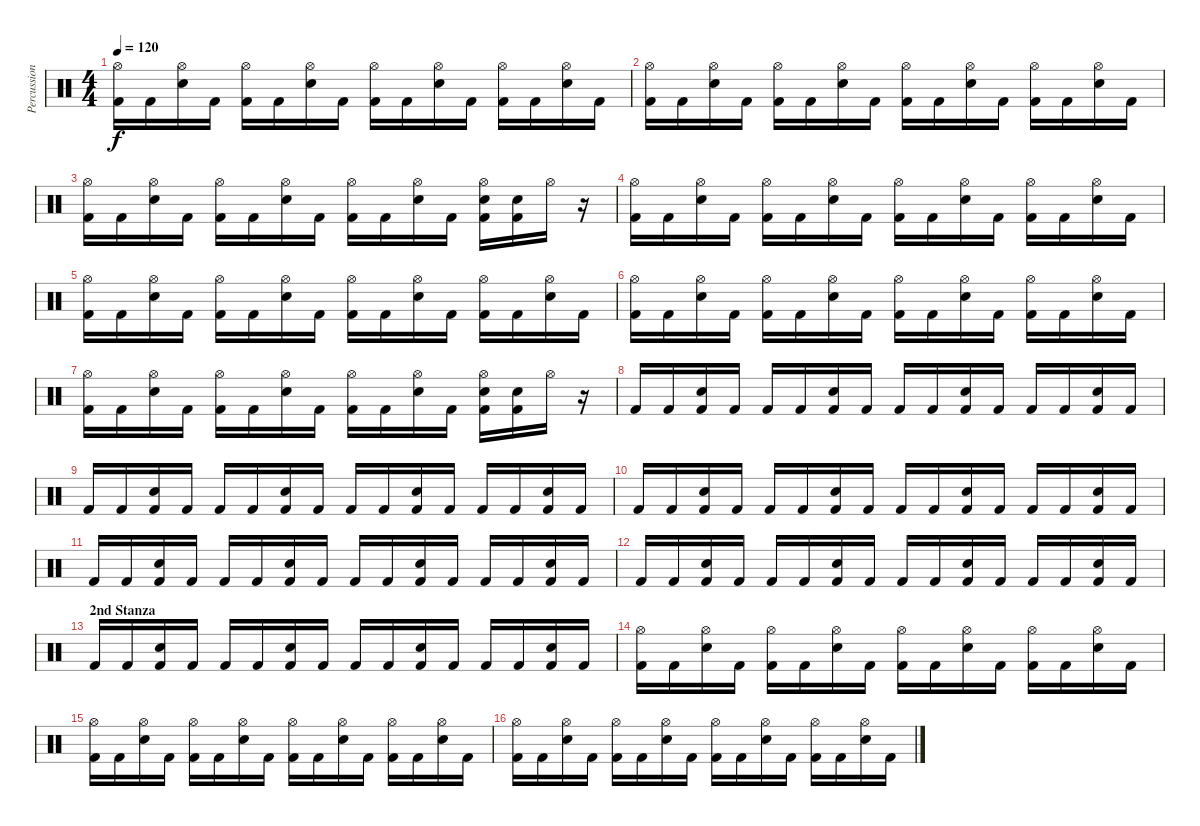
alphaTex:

\track ("Percussion" "Percussion") {instrument percussion}
\staff {score}
\articulation defaults
\ts (4 4)
\tempo 120
\clef neutral
\ks c
("Hi-Hat (open)" "Kick (hit) 2").16{dy f} "Kick (hit) 2".16 ("Hi-Hat (open)" "Snare (hit) 2").16 "Kick (hit) 2".16 ("Hi-Hat (open)" "Kick (hit) 2").16 "Kick (hit) 2".16 ("Hi-Hat (open)" "Snare (hit) 2").16 "Kick (hit) 2".16 ("Hi-Hat (open)" "Kick (hit) 2").16 "Kick (hit) 2".16 ("Hi-Hat (open)" "Snare (hit) 2").16 "Kick (hit) 2".16 ("Hi-Hat (open)" "Kick (hit) 2").16 "Kick (hit) 2".16 ("Hi-Hat (open)" "Snare (hit) 2").16 "Kick (hit) 2".16 |
("Hi-Hat (open)" "Kick (hit) 2").16 "Kick (hit) 2".16 ("Hi-Hat (open)" "Snare (hit) 2").16 "Kick (hit) 2".16 ("Hi-Hat (open)" "Kick (hit) 2").16 "Kick (hit) 2".16 ("Hi-Hat (open)" "Snare (hit) 2").16 "Kick (hit) 2".16 ("Hi-Hat (open)" "Kick (hit) 2").16 "Kick (hit) 2".16 ("Hi-Hat (open)" "Snare (hit) 2").16 "Kick (hit) 2".16 ("Hi-Hat (open)" "Kick (hit) 2").16 "Kick (hit) 2".16 ("Hi-Hat (open)" "Snare (hit) 2").16 "Kick (hit) 2".16 |
("Hi-Hat (open)" "Kick (hit) 2").16 "Kick (hit) 2".16 ("Hi-Hat (open)" "Snare (hit) 2").16 "Kick (hit) 2".16 ("Hi-Hat (open)" "Kick (hit) 2").16 "Kick (hit) 2".16 ("Hi-Hat (open)" "Snare (hit) 2").16 "Kick (hit) 2".16 ("Hi-Hat (open)" "Kick (hit) 2").16 "Kick (hit) 2".16 ("Hi-Hat (open)" "Snare (hit) 2").16 "Kick (hit) 2".16 ("Hi-Hat (open)" "Snare (hit) 2" "Kick (hit) 2").16 ("Snare (hit) 2" "Kick (hit) 2").16 "Hi-Hat (open)".16 r.16 |
("Hi-Hat (open)" "Kick (hit) 2").16 "Kick (hit) 2".16 ("Hi-Hat (open)" "Snare (hit) 2").16 "Kick (hit) 2".16 ("Hi-Hat (open)" "Kick (hit) 2").16 "Kick (hit) 2".16 ("Hi-Hat (open)" "Snare (hit) 2").16 "Kick (hit) 2".16 ("Hi-Hat (open)" "Kick (hit) 2").16 "Kick (hit) 2".16 ("Hi-Hat (open)" "Snare (hit) 2").16 "Kick (hit) 2".16 ("Hi-Hat (open)" "Kick (hit) 2").16 "Kick (hit) 2".16 ("Hi-Hat (open)" "Snare (hit) 2").16 "Kick (hit) 2".16 |
("Hi-Hat (open)" "Kick (hit) 2").16 "Kick (hit) 2".16 ("Hi-Hat (open)" "Snare (hit) 2").16 "Kick (hit) 2".16 ("Hi-Hat (open)" "Kick (hit) 2").16 "Kick (hit) 2".16 ("Hi-Hat (open)" "Snare (hit) 2").16 "Kick (hit) 2".16 ("Hi-Hat (open)" "Kick (hit) 2").16 "Kick (hit) 2".16 ("Hi-Hat (open)" "Snare (hit) 2").16 "Kick (hit) 2".16 ("Hi-Hat (open)" "Kick (hit) 2").16 "Kick (hit) 2".16 ("Hi-Hat (open)" "Snare (hit) 2").16 "Kick (hit) 2".16 |
("Hi-Hat (open)" "Kick (hit) 2").16 "Kick (hit) 2".16 ("Hi-Hat (open)" "Snare (hit) 2").16 "Kick (hit) 2".16 ("Hi-Hat (open)" "Kick (hit) 2").16 "Kick (hit) 2".16 ("Hi-Hat (open)" "Snare (hit) 2").16 "Kick (hit) 2".16 ("Hi-Hat (open)" "Kick (hit) 2").16 "Kick (hit) 2".16 ("Hi-Hat (open)" "Snare (hit) 2").16 "Kick (hit) 2".16 ("Hi-Hat (open)" "Kick (hit) 2").16 "Kick (hit) 2".16 ("Hi-Hat (open)" "Snare (hit) 2").16 "Kick (hit) 2".16 |
("Hi-Hat (open)" "Kick (hit) 2").16 "Kick (hit) 2".16 ("Hi-Hat (open)" "Snare (hit) 2").16 "Kick (hit) 2".16 ("Hi-Hat (open)" "Kick (hit) 2").16 "Kick (hit) 2".16 ("Hi-Hat (open)" "Snare (hit) 2").16 "Kick (hit) 2".16 ("Hi-Hat (open)" "Kick (hit) 2").16 "Kick (hit) 2".16 ("Hi-Hat (open)" "Snare (hit) 2").16 "Kick (hit) 2".16 ("Hi-Hat (open)" "Snare (hit) 2" "Kick (hit) 2").16 ("Snare (hit) 2" "Kick (hit) 2").16 "Hi-Hat (open)".16 r.16 |
"Kick (hit) 2".16 "Kick (hit) 2".16 ("Snare (hit) 2" "Kick (hit) 2").16 "Kick (hit) 2".16 "Kick (hit) 2".16 "Kick (hit) 2".16 ("Snare (hit) 2" "Kick (hit) 2").16 "Kick (hit) 2".16 "Kick (hit) 2".16 "Kick (hit) 2".16 ("Snare (hit) 2" "Kick (hit) 2").16 "Kick (hit) 2".16 "Kick (hit) 2".16 "Kick (hit) 2".16 ("Snare (hit) 2" "Kick (hit) 2").16 "Kick (hit) 2".16 |
"Kick (hit) 2".16 "Kick (hit) 2".16 ("Snare (hit) 2" "Kick (hit) 2").16 "Kick (hit) 2".16 "Kick (hit) 2".16 "Kick (hit) 2".16 ("Snare (hit) 2" "Kick (hit) 2").16 "Kick (hit) 2".16 "Kick (hit) 2".16 "Kick (hit) 2".16 ("Snare (hit) 2" "Kick (hit) 2").16 "Kick (hit) 2".16 "Kick (hit) 2".16 "Kick (hit) 2".16 ("Snare (hit) 2" "Kick (hit) 2").16 "Kick (hit) 2".16 |
"Kick (hit) 2".16 "Kick (hit) 2".16 ("Snare (hit) 2" "Kick (hit) 2").16 "Kick (hit) 2".16 "Kick (hit) 2".16 "Kick (hit) 2".16 ("Snare (hit) 2" "Kick (hit) 2").16 "Kick (hit) 2".16 "Kick (hit) 2".16 "Kick (hit) 2".16 ("Snare (hit) 2" "Kick (hit) 2").16 "Kick (hit) 2".16 "Kick (hit) 2".16 "Kick (hit) 2".16 ("Snare (hit) 2" "Kick (hit) 2").16 "Kick (hit) 2".16 |
"Kick (hit) 2".16 "Kick (hit) 2".16 ("Snare (hit) 2" "Kick (hit) 2").16 "Kick (hit) 2".16 "Kick (hit) 2".16 "Kick (hit) 2".16 ("Snare (hit) 2" "Kick (hit) 2").16 "Kick (hit) 2".16 "Kick (hit) 2".16 "Kick (hit) 2".16 ("Snare (hit) 2" "Kick (hit) 2").16 "Kick (hit) 2".16 "Kick (hit) 2".16 "Kick (hit) 2".16 ("Snare (hit) 2" "Kick (hit) 2").16 "Kick (hit) 2".16 |
"Kick (hit) 2".16 "Kick (hit) 2".16 ("Snare (hit) 2" "Kick (hit) 2").16 "Kick (hit) 2".16 "Kick (hit) 2".16 "Kick (hit) 2".16 ("Snare (hit) 2" "Kick (hit) 2").16 "Kick (hit) 2".16 "Kick (hit) 2".16 "Kick (hit) 2".16 ("Snare (hit) 2" "Kick (hit) 2").16 "Kick (hit) 2".16 "Kick (hit) 2".16 "Kick (hit) 2".16 ("Snare (hit) 2" "Kick (hit) 2").16 "Kick (hit) 2".16 |
\section ("" "2nd Stanza")
"Kick (hit) 2".16 "Kick (hit) 2".16 ("Snare (hit) 2" "Kick (hit) 2").16 "Kick (hit) 2".16 "Kick (hit) 2".16 "Kick (hit) 2".16 ("Snare (hit) 2" "Kick (hit) 2").16 "Kick (hit) 2".16 "Kick (hit) 2".16 "Kick (hit) 2".16 ("Snare (hit) 2" "Kick (hit) 2").16 "Kick (hit) 2".16 "Kick (hit) 2".16 "Kick (hit) 2".16 ("Snare (hit) 2" "Kick (hit) 2").16 "Kick (hit) 2".16 |
("Hi-Hat (open)" "Kick (hit) 2").16 "Kick (hit) 2".16 ("Hi-Hat (open)" "Snare (hit) 2").16 "Kick (hit) 2".16 ("Hi-Hat (open)" "Kick (hit) 2").16 "Kick (hit) 2".16 ("Hi-Hat (open)" "Snare (hit) 2").16 "Kick (hit) 2".16 ("Hi-Hat (open)" "Kick (hit) 2").16 "Kick (hit) 2".16 ("Hi-Hat (open)" "Snare (hit) 2").16 "Kick (hit) 2".16 ("Hi-Hat (open)" "Kick (hit) 2").16 "Kick (hit) 2".16 ("Hi-Hat (open)" "Snare (hit) 2").16 "Kick (hit) 2".16 |
("Hi-Hat (open)" "Kick (hit) 2").16 "Kick (hit) 2".16 ("Hi-Hat (open)" "Snare (hit) 2").16 "Kick (hit) 2".16 ("Hi-Hat (open)" "Kick (hit) 2").16 "Kick (hit) 2".16 ("Hi-Hat (open)" "Snare (hit) 2").16 "Kick (hit) 2".16 ("Hi-Hat (open)" "Kick (hit) 2").16 "Kick (hit) 2".16 ("Hi-Hat (open)" "Snare (hit) 2").16 "Kick (hit) 2".16 ("Hi-Hat (open)" "Kick (hit) 2").16 "Kick (hit) 2".16 ("Hi-Hat (open)" "Snare (hit) 2").16 "Kick (hit) 2".16 |
("Hi-Hat (open)" "Kick (hit) 2").16 "Kick (hit) 2".16 ("Hi-Hat (open)" "Snare (hit) 2").16 "Kick (hit) 2".16 ("Hi-Hat (open)" "Kick (hit) 2").16 "Kick (hit) 2".16 ("Hi-Hat (open)" "Snare (hit) 2").16 "Kick (hit) 2".16 ("Hi-Hat (open)" "Kick (hit) 2").16 "Kick (hit) 2".16 ("Hi-Hat (open)" "Snare (hit) 2").16 "Kick (hit) 2".16 ("Hi-Hat (open)" "Kick (hit) 2").16 "Kick (hit) 2".16 ("Hi-Hat (open)" "Snare (hit) 2").16 "Kick (hit) 2".16
